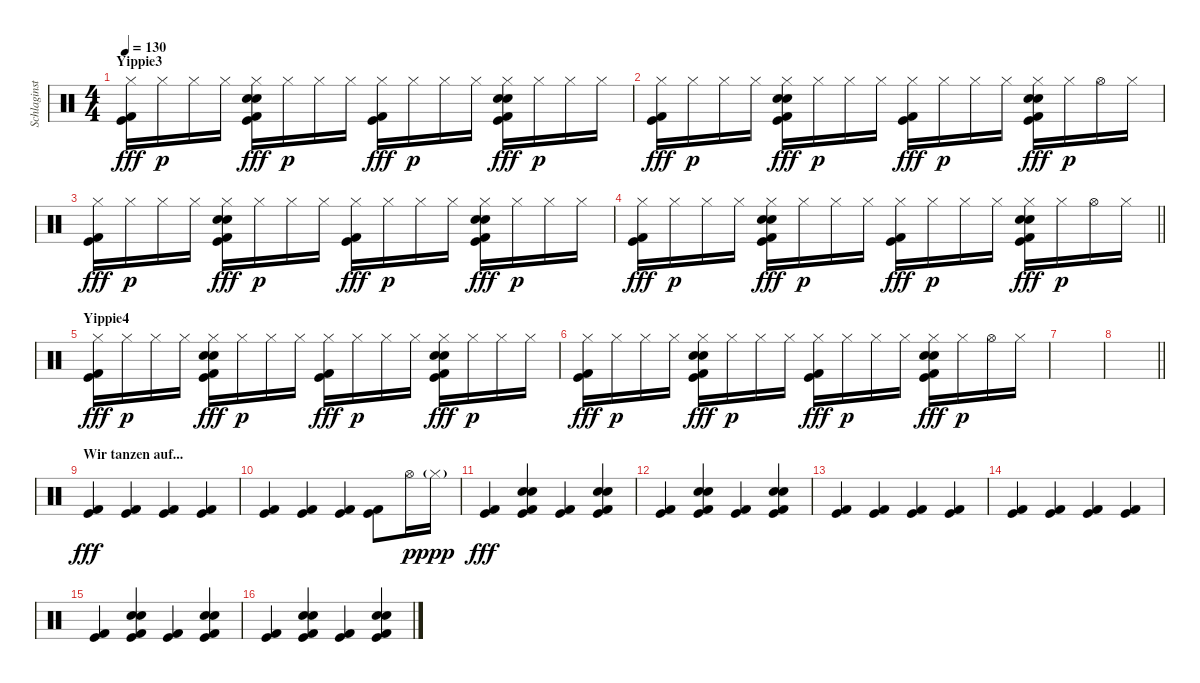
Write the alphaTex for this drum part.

\track ("Schlaginstrumente - Auswahl" "Schlaginst") {instrument percussion}
\staff {score}
\articulation defaults
\ts (4 4)
\section ("" "Yippie3")
\tempo 130
\clef neutral
\ks c
("Hi-Hat (closed)" "Kick (hit) 2" "Kick (hit)").16{dy fff} "Hi-Hat (closed)".16{dy p} "Hi-Hat (closed)".16 "Hi-Hat (closed)".16 ("Hand Clap (hit)" "Hi-Hat (closed)" "Snare (hit) 2" "Kick (hit) 2" "Kick (hit)").16{dy fff} "Hi-Hat (closed)".16{dy p} "Hi-Hat (closed)".16 "Hi-Hat (closed)".16 ("Hi-Hat (closed)" "Kick (hit) 2" "Kick (hit)").16{dy fff} "Hi-Hat (closed)".16{dy p} "Hi-Hat (closed)".16 "Hi-Hat (closed)".16 ("Hand Clap (hit)" "Hi-Hat (closed)" "Snare (hit) 2" "Kick (hit) 2" "Kick (hit)").16{dy fff} "Hi-Hat (closed)".16{dy p} "Hi-Hat (closed)".16 "Hi-Hat (closed)".16 |
("Hi-Hat (closed)" "Kick (hit) 2" "Kick (hit)").16{dy fff} "Hi-Hat (closed)".16{dy p} "Hi-Hat (closed)".16 "Hi-Hat (closed)".16 ("Hand Clap (hit)" "Hi-Hat (closed)" "Snare (hit) 2" "Kick (hit) 2" "Kick (hit)").16{dy fff} "Hi-Hat (closed)".16{dy p} "Hi-Hat (closed)".16 "Hi-Hat (closed)".16 ("Hi-Hat (closed)" "Kick (hit) 2" "Kick (hit)").16{dy fff} "Hi-Hat (closed)".16{dy p} "Hi-Hat (closed)".16 "Hi-Hat (closed)".16 ("Hand Clap (hit)" "Hi-Hat (closed)" "Snare (hit) 2" "Kick (hit) 2" "Kick (hit)").16{dy fff} "Hi-Hat (closed)".16{dy p} "Hi-Hat (open)".16 "Hi-Hat (closed)".16 |
("Hi-Hat (closed)" "Kick (hit) 2" "Kick (hit)").16{dy fff} "Hi-Hat (closed)".16{dy p} "Hi-Hat (closed)".16 "Hi-Hat (closed)".16 ("Hand Clap (hit)" "Hi-Hat (closed)" "Snare (hit) 2" "Kick (hit) 2" "Kick (hit)").16{dy fff} "Hi-Hat (closed)".16{dy p} "Hi-Hat (closed)".16 "Hi-Hat (closed)".16 ("Hi-Hat (closed)" "Kick (hit) 2" "Kick (hit)").16{dy fff} "Hi-Hat (closed)".16{dy p} "Hi-Hat (closed)".16 "Hi-Hat (closed)".16 ("Hand Clap (hit)" "Hi-Hat (closed)" "Snare (hit) 2" "Kick (hit) 2" "Kick (hit)").16{dy fff} "Hi-Hat (closed)".16{dy p} "Hi-Hat (closed)".16 "Hi-Hat (closed)".16 |
\barLineRight lightlight
("Hi-Hat (closed)" "Kick (hit) 2" "Kick (hit)").16{dy fff} "Hi-Hat (closed)".16{dy p} "Hi-Hat (closed)".16 "Hi-Hat (closed)".16 ("Hand Clap (hit)" "Hi-Hat (closed)" "Snare (hit) 2" "Kick (hit) 2" "Kick (hit)").16{dy fff} "Hi-Hat (closed)".16{dy p} "Hi-Hat (closed)".16 "Hi-Hat (closed)".16 ("Hi-Hat (closed)" "Kick (hit) 2" "Kick (hit)").16{dy fff} "Hi-Hat (closed)".16{dy p} "Hi-Hat (closed)".16 "Hi-Hat (closed)".16 ("Hand Clap (hit)" "Hi-Hat (closed)" "Snare (hit) 2" "Kick (hit) 2" "Kick (hit)").16{dy fff} "Hi-Hat (closed)".16{dy p} "Hi-Hat (open)".16 "Hi-Hat (closed)".16 |
\section ("" "Yippie4")
("Hi-Hat (closed)" "Kick (hit) 2" "Kick (hit)").16{dy fff} "Hi-Hat (closed)".16{dy p} "Hi-Hat (closed)".16 "Hi-Hat (closed)".16 ("Hand Clap (hit)" "Hi-Hat (closed)" "Snare (hit) 2" "Kick (hit) 2" "Kick (hit)").16{dy fff} "Hi-Hat (closed)".16{dy p} "Hi-Hat (closed)".16 "Hi-Hat (closed)".16 ("Hi-Hat (closed)" "Kick (hit) 2" "Kick (hit)").16{dy fff} "Hi-Hat (closed)".16{dy p} "Hi-Hat (closed)".16 "Hi-Hat (closed)".16 ("Hand Clap (hit)" "Hi-Hat (closed)" "Snare (hit) 2" "Kick (hit) 2" "Kick (hit)").16{dy fff} "Hi-Hat (closed)".16{dy p} "Hi-Hat (closed)".16 "Hi-Hat (closed)".16 |
("Hi-Hat (closed)" "Kick (hit) 2" "Kick (hit)").16{dy fff} "Hi-Hat (closed)".16{dy p} "Hi-Hat (closed)".16 "Hi-Hat (closed)".16 ("Hand Clap (hit)" "Hi-Hat (closed)" "Snare (hit) 2" "Kick (hit) 2" "Kick (hit)").16{dy fff} "Hi-Hat (closed)".16{dy p} "Hi-Hat (closed)".16 "Hi-Hat (closed)".16 ("Hi-Hat (closed)" "Kick (hit) 2" "Kick (hit)").16{dy fff} "Hi-Hat (closed)".16{dy p} "Hi-Hat (closed)".16 "Hi-Hat (closed)".16 ("Hand Clap (hit)" "Hi-Hat (closed)" "Snare (hit) 2" "Kick (hit) 2" "Kick (hit)").16{dy fff} "Hi-Hat (closed)".16{dy p} "Hi-Hat (open)".16 "Hi-Hat (closed)".16 |
|
\barLineRight lightlight
|
\section ("" "Wir tanzen auf...")
("Kick (hit) 2" "Kick (hit)").4{dy fff} ("Kick (hit) 2" "Kick (hit)").4 ("Kick (hit) 2" "Kick (hit)").4 ("Kick (hit) 2" "Kick (hit)").4 |
("Kick (hit) 2" "Kick (hit)").4 ("Kick (hit) 2" "Kick (hit)").4 ("Kick (hit) 2" "Kick (hit)").4 ("Kick (hit) 2" "Kick (hit)").8 "Hi-Hat (open)".16{dy p} "Hi-Hat (closed)"{g}.16{dy ppp} |
("Kick (hit) 2" "Kick (hit)").4{dy fff} ("Electric Snare (hit)" "Snare (hit) 2" "Kick (hit) 2" "Kick (hit)").4 ("Kick (hit) 2" "Kick (hit)").4 ("Electric Snare (hit)" "Snare (hit) 2" "Kick (hit) 2" "Kick (hit)").4 |
("Kick (hit) 2" "Kick (hit)").4 ("Electric Snare (hit)" "Snare (hit) 2" "Kick (hit) 2" "Kick (hit)").4 ("Kick (hit) 2" "Kick (hit)").4 ("Electric Snare (hit)" "Snare (hit) 2" "Kick (hit) 2" "Kick (hit)").4 |
("Kick (hit) 2" "Kick (hit)").4 ("Kick (hit) 2" "Kick (hit)").4 ("Kick (hit) 2" "Kick (hit)").4 ("Kick (hit) 2" "Kick (hit)").4 |
("Kick (hit) 2" "Kick (hit)").4 ("Kick (hit) 2" "Kick (hit)").4 ("Kick (hit) 2" "Kick (hit)").4 ("Kick (hit) 2" "Kick (hit)").4 |
("Kick (hit) 2" "Kick (hit)").4 ("Electric Snare (hit)" "Snare (hit) 2" "Kick (hit) 2" "Kick (hit)").4 ("Kick (hit) 2" "Kick (hit)").4 ("Electric Snare (hit)" "Snare (hit) 2" "Kick (hit) 2" "Kick (hit)").4 |
("Kick (hit) 2" "Kick (hit)").4 ("Electric Snare (hit)" "Snare (hit) 2" "Kick (hit) 2" "Kick (hit)").4 ("Kick (hit) 2" "Kick (hit)").4 ("Electric Snare (hit)" "Snare (hit) 2" "Kick (hit) 2" "Kick (hit)").4
